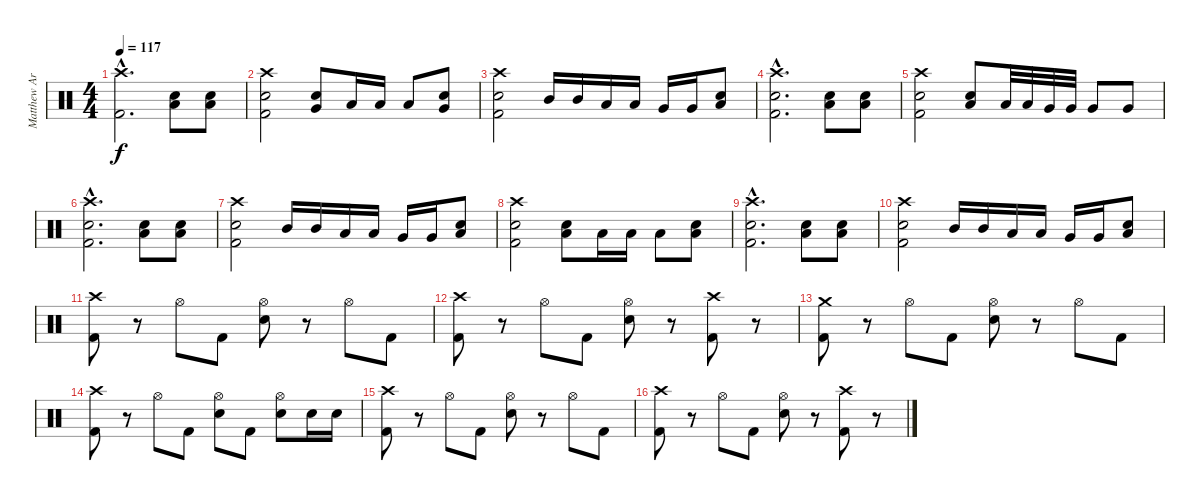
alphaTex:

\track ("Matthew Archer" "Matthew Ar") {instrument percussion}
\staff {score}
\articulation defaults
\ts (4 4)
\tempo 117
\clef neutral
\ks c
("Crash high (hit)"{hac} "Kick (hit) 2"{hac}).2{d dy f} ("Snare (hit) 2" "Low Floor Tom (hit)").8 ("Snare (hit) 2" "Low Floor Tom (hit)").8 |
("Crash high (hit)" "Kick (hit) 2" "Snare (hit) 2").2 ("Snare (hit) 2" "Very Low Tom (hit)").8 "Low Tom (hit)".16 "Low Tom (hit)".16 "Low Tom (hit)".8 ("Snare (hit) 2" "Very Low Tom (hit)").8 |
("Crash high (hit)" "Kick (hit) 2" "Snare (hit) 2").2 "Mid Tom (hit)".16 "Mid Tom (hit)".16 "Low Tom (hit)".16 "Low Tom (hit)".16 "Very Low Tom (hit)".16 "Very Low Tom (hit)".16 ("Snare (hit) 2" "Low Floor Tom (hit)").8 |
("Crash high (hit)"{hac} "Kick (hit) 2"{hac} "Snare (hit) 2"{hac}).2{d} ("Low Floor Tom (hit)" "Snare (hit) 2").8 ("Low Floor Tom (hit)" "Snare (hit) 2").8 |
("Crash high (hit)" "Kick (hit) 2" "Snare (hit) 2").2 ("Low Floor Tom (hit)" "Snare (hit) 2").8 "Low Tom (hit)".32 "Low Tom (hit)".32 "Very Low Tom (hit)".32 "Very Low Tom (hit)".32 "Very Low Tom (hit)".8 "Very Low Tom (hit)".8 |
("Crash high (hit)"{hac} "Kick (hit) 2"{hac} "Snare (hit) 2"{hac}).2{d} ("Low Floor Tom (hit)" "Snare (hit) 2").8 ("Low Floor Tom (hit)" "Snare (hit) 2").8 |
("Crash high (hit)" "Kick (hit) 2" "Snare (hit) 2").2 "Mid Tom (hit)".16 "Mid Tom (hit)".16 "Low Tom (hit)".16 "Low Tom (hit)".16 "Very Low Tom (hit)".16 "Very Low Tom (hit)".16 ("Snare (hit) 2" "Low Floor Tom (hit)").8 |
("Crash high (hit)" "Kick (hit) 2" "Snare (hit) 2").2 ("Snare (hit) 2" "Low Floor Tom (hit)").8 "Low Tom (hit)".16 "Low Tom (hit)".16 "Low Tom (hit)".8 ("Snare (hit) 2" "Low Floor Tom (hit)").8 |
("Crash high (hit)"{hac} "Kick (hit) 2"{hac} "Snare (hit) 2"{hac}).2{d} ("Low Floor Tom (hit)" "Snare (hit) 2").8 ("Low Floor Tom (hit)" "Snare (hit) 2").8 |
("Crash high (hit)" "Kick (hit) 2" "Snare (hit) 2").2 "Mid Tom (hit)".16 "Mid Tom (hit)".16 "Low Tom (hit)".16 "Low Tom (hit)".16 "Very Low Tom (hit)".16 "Very Low Tom (hit)".16 ("Low Floor Tom (hit)" "Snare (hit) 2").8 |
("Crash high (hit)" "Kick (hit) 2").8 r.8 "Hi-Hat (open)".8 "Kick (hit) 2".8 ("Hi-Hat (open)" "Snare (hit) 2").8 r.8 "Hi-Hat (open)".8 "Kick (hit) 2".8 |
("Crash high (hit)" "Kick (hit) 2").8 r.8 "Hi-Hat (open)".8 "Kick (hit) 2".8 ("Hi-Hat (open)" "Snare (hit) 2").8 r.8 ("Crash high (hit)" "Kick (hit) 2").8 r.8 |
("Crash medium (hit)" "Kick (hit) 2").8 r.8 "Hi-Hat (open)".8 "Kick (hit) 2".8 ("Hi-Hat (open)" "Snare (hit) 2").8 r.8 "Hi-Hat (open)".8 "Kick (hit) 2".8 |
("Crash high (hit)" "Kick (hit) 2").8 r.8 "Hi-Hat (open)".8 "Kick (hit) 2".8 ("Hi-Hat (open)" "Snare (hit) 2").8 "Kick (hit) 2".8 ("Hi-Hat (open)" "Snare (hit) 2").8 "Snare (hit) 2".16 "Snare (hit) 2".16 |
("Crash high (hit)" "Kick (hit) 2").8 r.8 "Hi-Hat (open)".8 "Kick (hit) 2".8 ("Hi-Hat (open)" "Snare (hit) 2").8 r.8 "Hi-Hat (open)".8 "Kick (hit) 2".8 |
("Crash high (hit)" "Kick (hit) 2").8 r.8 "Hi-Hat (open)".8 "Kick (hit) 2".8 ("Hi-Hat (open)" "Snare (hit) 2").8 r.8 ("Crash high (hit)" "Kick (hit) 2").8 r.8
